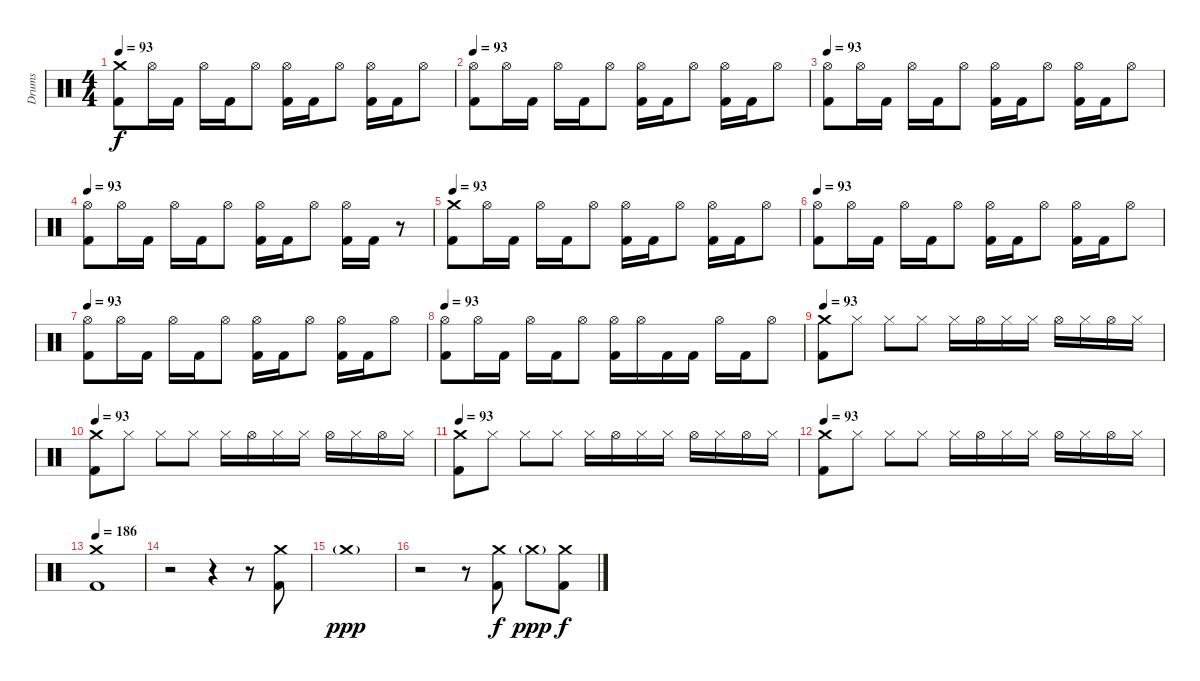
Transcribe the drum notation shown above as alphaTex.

\track ("Drums" "Drums") {instrument percussion}
\staff {score}
\articulation defaults
\ts (4 4)
\tempo 93
\clef neutral
\ks c
("Crash medium (hit)" "Kick (hit) 2").8{dy f} "Hi-Hat (open)".16 "Kick (hit) 2".16 "Hi-Hat (open)".16 "Kick (hit) 2".16 "Hi-Hat (open)".8 ("Hi-Hat (open)" "Kick (hit) 2").16 "Kick (hit) 2".16 "Hi-Hat (open)".8 ("Hi-Hat (open)" "Kick (hit) 2").16 "Kick (hit) 2".16 "Hi-Hat (open)".8 |
\tempo 93
("Hi-Hat (open)" "Kick (hit) 2").8 "Hi-Hat (open)".16 "Kick (hit) 2".16 "Hi-Hat (open)".16 "Kick (hit) 2".16 "Hi-Hat (open)".8 ("Hi-Hat (open)" "Kick (hit) 2").16 "Kick (hit) 2".16 "Hi-Hat (open)".8 ("Hi-Hat (open)" "Kick (hit) 2").16 "Kick (hit) 2".16 "Hi-Hat (open)".8 |
\tempo 93
("Hi-Hat (open)" "Kick (hit) 2").8 "Hi-Hat (open)".16 "Kick (hit) 2".16 "Hi-Hat (open)".16 "Kick (hit) 2".16 "Hi-Hat (open)".8 ("Hi-Hat (open)" "Kick (hit) 2").16 "Kick (hit) 2".16 "Hi-Hat (open)".8 ("Hi-Hat (open)" "Kick (hit) 2").16 "Kick (hit) 2".16 "Hi-Hat (open)".8 |
\tempo 93
("Hi-Hat (open)" "Kick (hit) 2").8 "Hi-Hat (open)".16 "Kick (hit) 2".16 "Hi-Hat (open)".16 "Kick (hit) 2".16 "Hi-Hat (open)".8 ("Hi-Hat (open)" "Kick (hit) 2").16 "Kick (hit) 2".16 "Hi-Hat (open)".8 ("Hi-Hat (open)" "Kick (hit) 2").16 "Kick (hit) 2".16 r.8 |
\tempo 93
("Crash medium (hit)" "Kick (hit) 2").8 "Hi-Hat (open)".16 "Kick (hit) 2".16 "Hi-Hat (open)".16 "Kick (hit) 2".16 "Hi-Hat (open)".8 ("Hi-Hat (open)" "Kick (hit) 2").16 "Kick (hit) 2".16 "Hi-Hat (open)".8 ("Hi-Hat (open)" "Kick (hit) 2").16 "Kick (hit) 2".16 "Hi-Hat (open)".8 |
\tempo 93
("Hi-Hat (open)" "Kick (hit) 2").8 "Hi-Hat (open)".16 "Kick (hit) 2".16 "Hi-Hat (open)".16 "Kick (hit) 2".16 "Hi-Hat (open)".8 ("Hi-Hat (open)" "Kick (hit) 2").16 "Kick (hit) 2".16 "Hi-Hat (open)".8 ("Hi-Hat (open)" "Kick (hit) 2").16 "Kick (hit) 2".16 "Hi-Hat (open)".8 |
\tempo 93
("Hi-Hat (open)" "Kick (hit) 2").8 "Hi-Hat (open)".16 "Kick (hit) 2".16 "Hi-Hat (open)".16 "Kick (hit) 2".16 "Hi-Hat (open)".8 ("Hi-Hat (open)" "Kick (hit) 2").16 "Kick (hit) 2".16 "Hi-Hat (open)".8 ("Hi-Hat (open)" "Kick (hit) 2").16 "Kick (hit) 2".16 "Hi-Hat (open)".8 |
\tempo 93
("Hi-Hat (open)" "Kick (hit) 2").8 "Hi-Hat (open)".16 "Kick (hit) 2".16 "Hi-Hat (open)".16 "Kick (hit) 2".16 "Hi-Hat (open)".8 ("Hi-Hat (open)" "Kick (hit) 2").16 "Hi-Hat (open)".16 "Kick (hit) 2".16 "Kick (hit) 2".16 "Hi-Hat (open)".16 "Kick (hit) 2".16 "Hi-Hat (open)".8 |
\tempo 93
("Crash medium (hit)" "Kick (hit) 2").8 "Hi-Hat (closed)".8 "Hi-Hat (closed)".8 "Hi-Hat (closed)".8 "Hi-Hat (closed)".16 "Hi-Hat (open)".16 "Hi-Hat (closed)".16 "Hi-Hat (closed)".16 "Hi-Hat (open)".16 "Hi-Hat (closed)".16 "Hi-Hat (open)".16 "Hi-Hat (closed)".16 |
\tempo 93
("Crash medium (hit)" "Kick (hit) 2").8 "Hi-Hat (closed)".8 "Hi-Hat (closed)".8 "Hi-Hat (closed)".8 "Hi-Hat (closed)".16 "Hi-Hat (open)".16 "Hi-Hat (closed)".16 "Hi-Hat (closed)".16 "Hi-Hat (open)".16 "Hi-Hat (closed)".16 "Hi-Hat (open)".16 "Hi-Hat (closed)".16 |
\tempo 93
("Crash medium (hit)" "Kick (hit) 2").8 "Hi-Hat (closed)".8 "Hi-Hat (closed)".8 "Hi-Hat (closed)".8 "Hi-Hat (closed)".16 "Hi-Hat (open)".16 "Hi-Hat (closed)".16 "Hi-Hat (closed)".16 "Hi-Hat (open)".16 "Hi-Hat (closed)".16 "Hi-Hat (open)".16 "Hi-Hat (closed)".16 |
\tempo 93
("Crash medium (hit)" "Kick (hit) 2").8 "Hi-Hat (closed)".8 "Hi-Hat (closed)".8 "Hi-Hat (closed)".8 "Hi-Hat (closed)".16 "Hi-Hat (open)".16 "Hi-Hat (closed)".16 "Hi-Hat (closed)".16 "Hi-Hat (open)".16 "Hi-Hat (closed)".16 "Hi-Hat (open)".16 "Hi-Hat (closed)".16 |
\tempo 186
("Crash medium (hit)" "Kick (hit) 2").1 |
r.2 r.4 r.8 ("Crash medium (hit)" "Kick (hit) 2").8 |
"Crash medium (hit)"{g}.1{dy ppp} |
r.2 r.8 ("Crash medium (hit)" "Kick (hit) 2").8{dy f} "Crash medium (hit)"{g}.8{dy ppp} ("Crash medium (hit)" "Kick (hit) 2").8{dy f}
